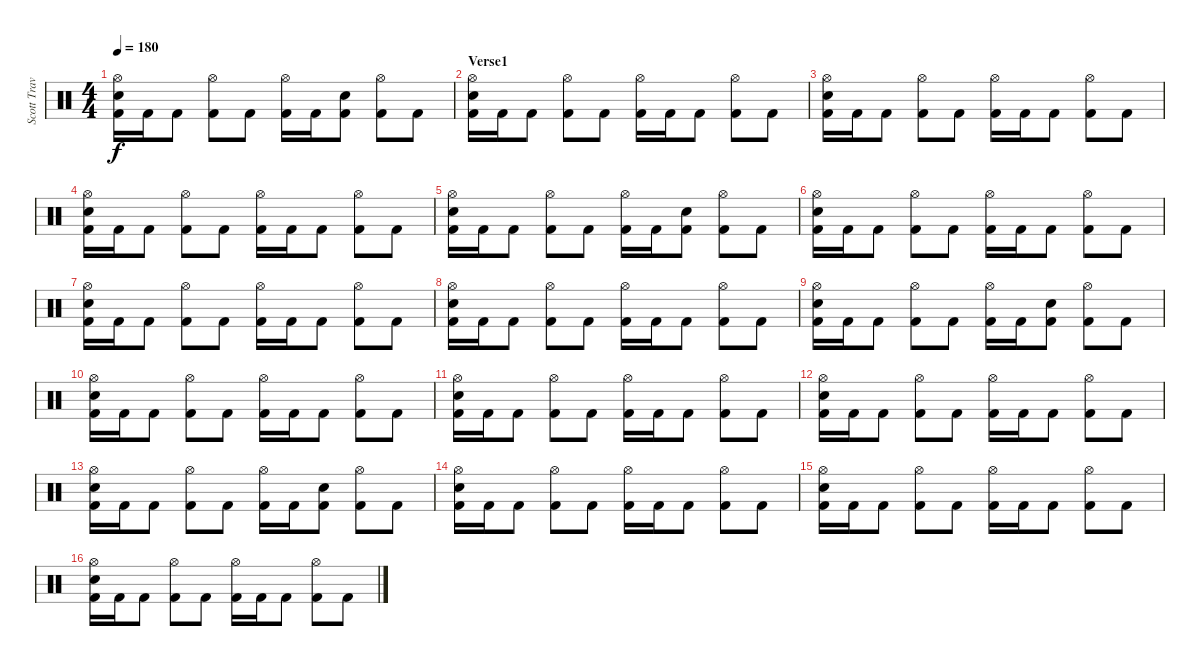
\track ("Scott Travis" "Scott Trav") {instrument percussion}
\staff {score}
\articulation defaults
\ts (4 4)
\tempo 180
\clef neutral
\ks c
("Hi-Hat (open)" "Snare (hit) 2" "Kick (hit) 2").16{dy f} "Kick (hit) 2".16 "Kick (hit) 2".8 ("Hi-Hat (open)" "Kick (hit) 2").8 "Kick (hit) 2".8 ("Hi-Hat (open)" "Kick (hit) 2").16 "Kick (hit) 2".16 ("Snare (hit) 2" "Kick (hit) 2").8 ("Hi-Hat (open)" "Kick (hit) 2").8 "Kick (hit) 2".8 |
\section ("" "Verse1")
("Hi-Hat (open)" "Snare (hit) 2" "Kick (hit) 2").16 "Kick (hit) 2".16 "Kick (hit) 2".8 ("Hi-Hat (open)" "Kick (hit) 2").8 "Kick (hit) 2".8 ("Hi-Hat (open)" "Kick (hit) 2").16 "Kick (hit) 2".16 "Kick (hit) 2".8 ("Hi-Hat (open)" "Kick (hit) 2").8 "Kick (hit) 2".8 |
("Hi-Hat (open)" "Snare (hit) 2" "Kick (hit) 2").16 "Kick (hit) 2".16 "Kick (hit) 2".8 ("Hi-Hat (open)" "Kick (hit) 2").8 "Kick (hit) 2".8 ("Hi-Hat (open)" "Kick (hit) 2").16 "Kick (hit) 2".16 "Kick (hit) 2".8 ("Hi-Hat (open)" "Kick (hit) 2").8 "Kick (hit) 2".8 |
("Hi-Hat (open)" "Snare (hit) 2" "Kick (hit) 2").16 "Kick (hit) 2".16 "Kick (hit) 2".8 ("Hi-Hat (open)" "Kick (hit) 2").8 "Kick (hit) 2".8 ("Hi-Hat (open)" "Kick (hit) 2").16 "Kick (hit) 2".16 "Kick (hit) 2".8 ("Hi-Hat (open)" "Kick (hit) 2").8 "Kick (hit) 2".8 |
("Hi-Hat (open)" "Snare (hit) 2" "Kick (hit) 2").16 "Kick (hit) 2".16 "Kick (hit) 2".8 ("Hi-Hat (open)" "Kick (hit) 2").8 "Kick (hit) 2".8 ("Hi-Hat (open)" "Kick (hit) 2").16 "Kick (hit) 2".16 ("Snare (hit) 2" "Kick (hit) 2").8 ("Hi-Hat (open)" "Kick (hit) 2").8 "Kick (hit) 2".8 |
("Hi-Hat (open)" "Snare (hit) 2" "Kick (hit) 2").16 "Kick (hit) 2".16 "Kick (hit) 2".8 ("Hi-Hat (open)" "Kick (hit) 2").8 "Kick (hit) 2".8 ("Hi-Hat (open)" "Kick (hit) 2").16 "Kick (hit) 2".16 "Kick (hit) 2".8 ("Hi-Hat (open)" "Kick (hit) 2").8 "Kick (hit) 2".8 |
("Hi-Hat (open)" "Snare (hit) 2" "Kick (hit) 2").16 "Kick (hit) 2".16 "Kick (hit) 2".8 ("Hi-Hat (open)" "Kick (hit) 2").8 "Kick (hit) 2".8 ("Hi-Hat (open)" "Kick (hit) 2").16 "Kick (hit) 2".16 "Kick (hit) 2".8 ("Hi-Hat (open)" "Kick (hit) 2").8 "Kick (hit) 2".8 |
("Hi-Hat (open)" "Snare (hit) 2" "Kick (hit) 2").16 "Kick (hit) 2".16 "Kick (hit) 2".8 ("Hi-Hat (open)" "Kick (hit) 2").8 "Kick (hit) 2".8 ("Hi-Hat (open)" "Kick (hit) 2").16 "Kick (hit) 2".16 "Kick (hit) 2".8 ("Hi-Hat (open)" "Kick (hit) 2").8 "Kick (hit) 2".8 |
("Hi-Hat (open)" "Snare (hit) 2" "Kick (hit) 2").16 "Kick (hit) 2".16 "Kick (hit) 2".8 ("Hi-Hat (open)" "Kick (hit) 2").8 "Kick (hit) 2".8 ("Hi-Hat (open)" "Kick (hit) 2").16 "Kick (hit) 2".16 ("Snare (hit) 2" "Kick (hit) 2").8 ("Hi-Hat (open)" "Kick (hit) 2").8 "Kick (hit) 2".8 |
("Hi-Hat (open)" "Snare (hit) 2" "Kick (hit) 2").16 "Kick (hit) 2".16 "Kick (hit) 2".8 ("Hi-Hat (open)" "Kick (hit) 2").8 "Kick (hit) 2".8 ("Hi-Hat (open)" "Kick (hit) 2").16 "Kick (hit) 2".16 "Kick (hit) 2".8 ("Hi-Hat (open)" "Kick (hit) 2").8 "Kick (hit) 2".8 |
("Hi-Hat (open)" "Snare (hit) 2" "Kick (hit) 2").16 "Kick (hit) 2".16 "Kick (hit) 2".8 ("Hi-Hat (open)" "Kick (hit) 2").8 "Kick (hit) 2".8 ("Hi-Hat (open)" "Kick (hit) 2").16 "Kick (hit) 2".16 "Kick (hit) 2".8 ("Hi-Hat (open)" "Kick (hit) 2").8 "Kick (hit) 2".8 |
("Hi-Hat (open)" "Snare (hit) 2" "Kick (hit) 2").16 "Kick (hit) 2".16 "Kick (hit) 2".8 ("Hi-Hat (open)" "Kick (hit) 2").8 "Kick (hit) 2".8 ("Hi-Hat (open)" "Kick (hit) 2").16 "Kick (hit) 2".16 "Kick (hit) 2".8 ("Hi-Hat (open)" "Kick (hit) 2").8 "Kick (hit) 2".8 |
("Hi-Hat (open)" "Snare (hit) 2" "Kick (hit) 2").16 "Kick (hit) 2".16 "Kick (hit) 2".8 ("Hi-Hat (open)" "Kick (hit) 2").8 "Kick (hit) 2".8 ("Hi-Hat (open)" "Kick (hit) 2").16 "Kick (hit) 2".16 ("Snare (hit) 2" "Kick (hit) 2").8 ("Hi-Hat (open)" "Kick (hit) 2").8 "Kick (hit) 2".8 |
("Hi-Hat (open)" "Snare (hit) 2" "Kick (hit) 2").16 "Kick (hit) 2".16 "Kick (hit) 2".8 ("Hi-Hat (open)" "Kick (hit) 2").8 "Kick (hit) 2".8 ("Hi-Hat (open)" "Kick (hit) 2").16 "Kick (hit) 2".16 "Kick (hit) 2".8 ("Hi-Hat (open)" "Kick (hit) 2").8 "Kick (hit) 2".8 |
("Hi-Hat (open)" "Snare (hit) 2" "Kick (hit) 2").16 "Kick (hit) 2".16 "Kick (hit) 2".8 ("Hi-Hat (open)" "Kick (hit) 2").8 "Kick (hit) 2".8 ("Hi-Hat (open)" "Kick (hit) 2").16 "Kick (hit) 2".16 "Kick (hit) 2".8 ("Hi-Hat (open)" "Kick (hit) 2").8 "Kick (hit) 2".8 |
("Hi-Hat (open)" "Snare (hit) 2" "Kick (hit) 2").16 "Kick (hit) 2".16 "Kick (hit) 2".8 ("Hi-Hat (open)" "Kick (hit) 2").8 "Kick (hit) 2".8 ("Hi-Hat (open)" "Kick (hit) 2").16 "Kick (hit) 2".16 "Kick (hit) 2".8 ("Hi-Hat (open)" "Kick (hit) 2").8 "Kick (hit) 2".8
